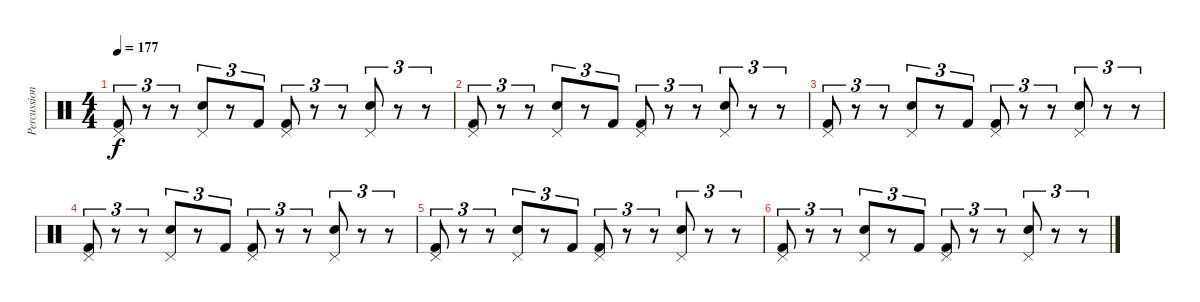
\track ("Percussion" "Percussion") {instrument percussion}
\staff {score}
\articulation defaults
\ts (4 4)
\tempo 177
\clef neutral
\ks c
("Pedal Hi-Hat (hit)" "Kick (hit) 2").8{tu (3 2) dy f} r.8{tu (3 2)} r.8{tu (3 2)} ("Pedal Hi-Hat (hit)" "Electric Snare (hit)").8{tu (3 2)} r.8{tu (3 2)} "Kick (hit) 2".8{tu (3 2)} ("Pedal Hi-Hat (hit)" "Kick (hit) 2").8{tu (3 2)} r.8{tu (3 2)} r.8{tu (3 2)} ("Pedal Hi-Hat (hit)" "Electric Snare (hit)").8{tu (3 2)} r.8{tu (3 2)} r.8{tu (3 2)} |
("Pedal Hi-Hat (hit)" "Kick (hit) 2").8{tu (3 2)} r.8{tu (3 2)} r.8{tu (3 2)} ("Pedal Hi-Hat (hit)" "Electric Snare (hit)").8{tu (3 2)} r.8{tu (3 2)} "Kick (hit) 2".8{tu (3 2)} ("Pedal Hi-Hat (hit)" "Kick (hit) 2").8{tu (3 2)} r.8{tu (3 2)} r.8{tu (3 2)} ("Pedal Hi-Hat (hit)" "Electric Snare (hit)").8{tu (3 2)} r.8{tu (3 2)} r.8{tu (3 2)} |
("Pedal Hi-Hat (hit)" "Kick (hit) 2").8{tu (3 2)} r.8{tu (3 2)} r.8{tu (3 2)} ("Pedal Hi-Hat (hit)" "Electric Snare (hit)").8{tu (3 2)} r.8{tu (3 2)} "Kick (hit) 2".8{tu (3 2)} ("Pedal Hi-Hat (hit)" "Kick (hit) 2").8{tu (3 2)} r.8{tu (3 2)} r.8{tu (3 2)} ("Pedal Hi-Hat (hit)" "Electric Snare (hit)").8{tu (3 2)} r.8{tu (3 2)} r.8{tu (3 2)} |
("Pedal Hi-Hat (hit)" "Kick (hit) 2").8{tu (3 2)} r.8{tu (3 2)} r.8{tu (3 2)} ("Pedal Hi-Hat (hit)" "Electric Snare (hit)").8{tu (3 2)} r.8{tu (3 2)} "Kick (hit) 2".8{tu (3 2)} ("Pedal Hi-Hat (hit)" "Kick (hit) 2").8{tu (3 2)} r.8{tu (3 2)} r.8{tu (3 2)} ("Pedal Hi-Hat (hit)" "Electric Snare (hit)").8{tu (3 2)} r.8{tu (3 2)} r.8{tu (3 2)} |
("Pedal Hi-Hat (hit)" "Kick (hit) 2").8{tu (3 2)} r.8{tu (3 2)} r.8{tu (3 2)} ("Pedal Hi-Hat (hit)" "Electric Snare (hit)").8{tu (3 2)} r.8{tu (3 2)} "Kick (hit) 2".8{tu (3 2)} ("Pedal Hi-Hat (hit)" "Kick (hit) 2").8{tu (3 2)} r.8{tu (3 2)} r.8{tu (3 2)} ("Pedal Hi-Hat (hit)" "Electric Snare (hit)").8{tu (3 2)} r.8{tu (3 2)} r.8{tu (3 2)} |
("Pedal Hi-Hat (hit)" "Kick (hit) 2").8{tu (3 2)} r.8{tu (3 2)} r.8{tu (3 2)} ("Pedal Hi-Hat (hit)" "Electric Snare (hit)").8{tu (3 2)} r.8{tu (3 2)} "Kick (hit) 2".8{tu (3 2)} ("Pedal Hi-Hat (hit)" "Kick (hit) 2").8{tu (3 2)} r.8{tu (3 2)} r.8{tu (3 2)} ("Pedal Hi-Hat (hit)" "Electric Snare (hit)").8{tu (3 2)} r.8{tu (3 2)} r.8{tu (3 2)}
